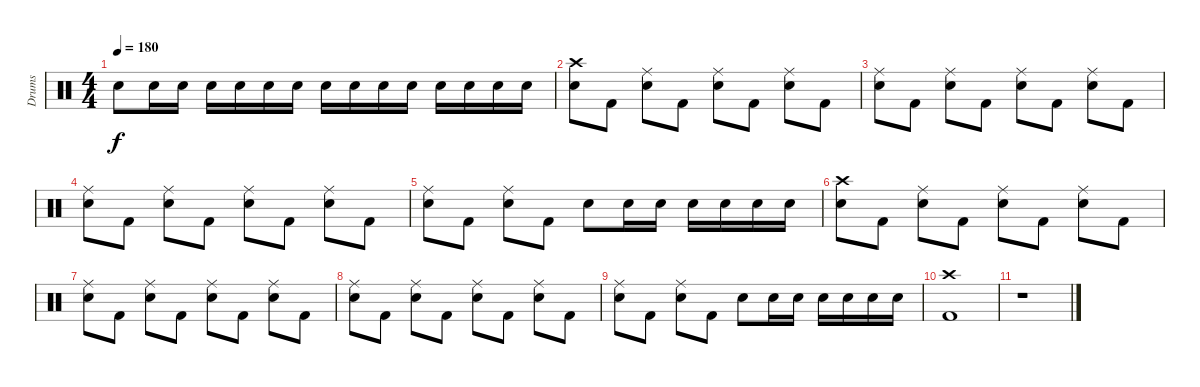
\track ("Drums" "Drums") {instrument percussion}
\staff {score}
\articulation defaults
\ts (4 4)
\tempo 180
\clef neutral
\ks c "Electric Snare (hit)".8{dy f} "Electric Snare (hit)".16 "Electric Snare (hit)".16 "Electric Snare (hit)".16 "Electric Snare (hit)".16 "Electric Snare (hit)".16 "Electric Snare (hit)".16 "Electric Snare (hit)".16 "Electric Snare (hit)".16 "Electric Snare (hit)".16 "Electric Snare (hit)".16 "Electric Snare (hit)".16 "Electric Snare (hit)".16 "Electric Snare (hit)".16 "Electric Snare (hit)".16
|
("Crash high (hit)" "Electric Snare (hit)").8 "Kick (hit) 2".8 ("Ride (middle)" "Electric Snare (hit)").8 "Kick (hit) 2".8 ("Ride (middle)" "Electric Snare (hit)").8 "Kick (hit) 2".8 ("Ride (middle)" "Electric Snare (hit)").8 "Kick (hit) 2".8 |
("Ride (middle)" "Electric Snare (hit)").8 "Kick (hit) 2".8 ("Ride (middle)" "Electric Snare (hit)").8 "Kick (hit) 2".8 ("Ride (middle)" "Electric Snare (hit)").8 "Kick (hit) 2".8 ("Ride (middle)" "Electric Snare (hit)").8 "Kick (hit) 2".8 |
("Ride (middle)" "Electric Snare (hit)").8 "Kick (hit) 2".8 ("Ride (middle)" "Electric Snare (hit)").8 "Kick (hit) 2".8 ("Ride (middle)" "Electric Snare (hit)").8 "Kick (hit) 2".8 ("Ride (middle)" "Electric Snare (hit)").8 "Kick (hit) 2".8 |
("Ride (middle)" "Electric Snare (hit)").8 "Kick (hit) 2".8 ("Ride (middle)" "Electric Snare (hit)").8 "Kick (hit) 2".8 "Electric Snare (hit)".8 "Electric Snare (hit)".16 "Electric Snare (hit)".16 "Electric Snare (hit)".16 "Electric Snare (hit)".16 "Electric Snare (hit)".16 "Electric Snare (hit)".16 |
("Crash high (hit)" "Electric Snare (hit)").8 "Kick (hit) 2".8 ("Ride (middle)" "Electric Snare (hit)").8 "Kick (hit) 2".8 ("Ride (middle)" "Electric Snare (hit)").8 "Kick (hit) 2".8 ("Ride (middle)" "Electric Snare (hit)").8 "Kick (hit) 2".8 |
("Ride (middle)" "Electric Snare (hit)").8 "Kick (hit) 2".8 ("Ride (middle)" "Electric Snare (hit)").8 "Kick (hit) 2".8 ("Ride (middle)" "Electric Snare (hit)").8 "Kick (hit) 2".8 ("Ride (middle)" "Electric Snare (hit)").8 "Kick (hit) 2".8 |
("Ride (middle)" "Electric Snare (hit)").8 "Kick (hit) 2".8 ("Ride (middle)" "Electric Snare (hit)").8 "Kick (hit) 2".8 ("Ride (middle)" "Electric Snare (hit)").8 "Kick (hit) 2".8 ("Ride (middle)" "Electric Snare (hit)").8 "Kick (hit) 2".8 |
("Ride (middle)" "Electric Snare (hit)").8 "Kick (hit) 2".8 ("Ride (middle)" "Electric Snare (hit)").8 "Kick (hit) 2".8 "Electric Snare (hit)".8 "Electric Snare (hit)".16 "Electric Snare (hit)".16 "Electric Snare (hit)".16 "Electric Snare (hit)".16 "Electric Snare (hit)".16 "Electric Snare (hit)".16 |
("Crash high (hit)" "Kick (hit) 2").1 |
r.1
